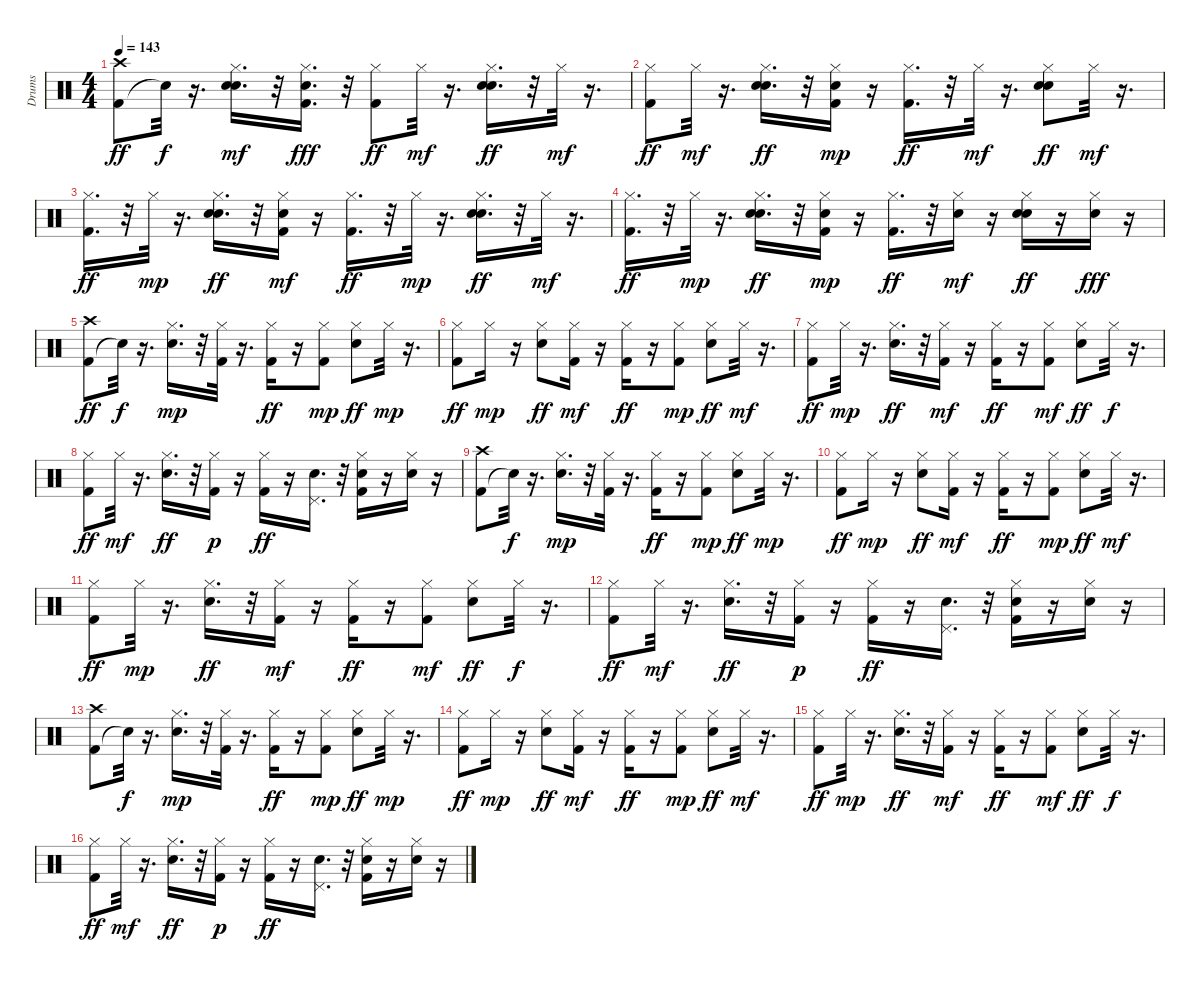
\track ("Drums               " "Drums     ") {instrument percussion}
\staff {score}
\articulation defaults
\ts (4 4)
\tempo 143
\clef neutral
\ks c
("Kick (hit) 2" "Crash high (hit)").8{dy ff} "Snare (hit)"{t}.32{dy f} r.16{d} ("Snare (hit) 2" "Hand Clap (hit)" "Hi-Hat (closed)").16{d dy mf} r.32 ("Kick (hit) 2" "Hand Clap (hit)" "Hi-Hat (closed)").16{d dy fff} r.32 ("Kick (hit) 2" "Hi-Hat (closed)").8{dy ff} "Hi-Hat (closed)".32{dy mf} r.16{d} ("Snare (hit) 2" "Hand Clap (hit)" "Hi-Hat (closed)").16{d dy ff} r.32 "Hi-Hat (closed)".32{dy mf} r.16{d} |
("Kick (hit) 2" "Hi-Hat (closed)").8{dy ff} "Hi-Hat (closed)".32{dy mf} r.16{d} ("Snare (hit) 2" "Hand Clap (hit)" "Hi-Hat (closed)").16{d dy ff} r.32 ("Kick (hit) 2" "Hand Clap (hit)" "Hi-Hat (closed)").16{dy mp} r.16 ("Kick (hit) 2" "Hi-Hat (closed)").16{d dy ff} r.32 "Hi-Hat (closed)".32{dy mf} r.16{d} ("Snare (hit) 2" "Hand Clap (hit)" "Hi-Hat (closed)").8{dy ff} "Hi-Hat (closed)".32{dy mf} r.16{d} |
("Kick (hit) 2" "Hi-Hat (closed)").16{d dy ff} r.32 "Hi-Hat (closed)".32{dy mp} r.16{d} ("Snare (hit) 2" "Hand Clap (hit)" "Hi-Hat (closed)").16{d dy ff} r.32 ("Kick (hit) 2" "Hand Clap (hit)" "Hi-Hat (closed)").16{dy mf} r.16 ("Kick (hit) 2" "Hi-Hat (closed)").16{d dy ff} r.32 "Hi-Hat (closed)".32{dy mp} r.16{d} ("Snare (hit) 2" "Hand Clap (hit)" "Hi-Hat (closed)").16{d dy ff} r.32 "Hi-Hat (closed)".32{dy mf} r.16{d} |
("Kick (hit) 2" "Hi-Hat (closed)").16{d dy ff} r.32 "Hi-Hat (closed)".32{dy mp} r.16{d} ("Snare (hit) 2" "Hand Clap (hit)" "Hi-Hat (closed)").16{d dy ff} r.32 ("Kick (hit) 2" "Hand Clap (hit)" "Hi-Hat (closed)").16{dy mp} r.16 ("Kick (hit) 2" "Hi-Hat (closed)").16{d dy ff} r.32 ("Snare (hit) 2" "Hi-Hat (closed)").16{dy mf} r.16 ("Snare (hit) 2" "Hand Clap (hit)" "Hi-Hat (closed)").16{dy ff} r.16 ("Snare (hit) 2" "Hi-Hat (closed)").16{dy fff} r.16 |
("Kick (hit) 2" "Crash high (hit)").8{dy ff} "Snare (hit)"{t}.32{dy f} r.16{d} ("Snare (hit) 2" "Hi-Hat (closed)").16{d dy mp} r.32 ("Kick (hit) 2" "Hi-Hat (closed)").32 r.16{d} ("Kick (hit) 2" "Hi-Hat (closed)").16{dy ff} r.16 ("Kick (hit) 2" "Hi-Hat (closed)").8{dy mp} ("Snare (hit) 2" "Hi-Hat (closed)").8{dy ff} "Hi-Hat (closed)".32{dy mp} r.16{d} |
("Kick (hit) 2" "Hi-Hat (closed)").8{dy ff} "Hi-Hat (closed)".16{dy mp} r.16 ("Snare (hit) 2" "Hi-Hat (closed)").8{dy ff} ("Kick (hit) 2" "Hi-Hat (closed)").16{dy mf} r.16 ("Kick (hit) 2" "Hi-Hat (closed)").16{dy ff} r.16 ("Kick (hit) 2" "Hi-Hat (closed)").8{dy mp} ("Snare (hit) 2" "Hi-Hat (closed)").8{dy ff} "Hi-Hat (closed)".32{dy mf} r.16{d} |
("Kick (hit) 2" "Hi-Hat (closed)").8{dy ff} "Hi-Hat (closed)".32{dy mp} r.16{d} ("Snare (hit) 2" "Hi-Hat (closed)").16{d dy ff} r.32 ("Kick (hit) 2" "Hi-Hat (closed)").16{dy mf} r.16 ("Kick (hit) 2" "Hi-Hat (closed)").16{dy ff} r.16 ("Kick (hit) 2" "Hi-Hat (closed)").8{dy mf} ("Snare (hit) 2" "Hi-Hat (closed)").8{dy ff} "Hi-Hat (closed)".32{dy f} r.16{d} |
("Kick (hit) 2" "Hi-Hat (closed)").8{dy ff} "Hi-Hat (closed)".32{dy mf} r.16{d} ("Snare (hit) 2" "Hi-Hat (closed)").16{d dy ff} r.32 ("Kick (hit) 2" "Hi-Hat (closed)").16{dy p} r.16 ("Kick (hit) 2" "Hi-Hat (closed)").16{dy ff} r.16 ("Snare (hit) 2" "Pedal Hi-Hat (hit)").16{d} r.32 ("Kick (hit) 2" "Snare (hit) 2" "Hi-Hat (closed)").16 r.16 ("Snare (hit) 2" "Hi-Hat (closed)").16 r.16 |
("Kick (hit) 2" "Crash high (hit)").8 "Snare (hit)"{t}.32{dy f} r.16{d} ("Snare (hit) 2" "Hi-Hat (closed)").16{d dy mp} r.32 ("Kick (hit) 2" "Hi-Hat (closed)").32 r.16{d} ("Kick (hit) 2" "Hi-Hat (closed)").16{dy ff} r.16 ("Kick (hit) 2" "Hi-Hat (closed)").8{dy mp} ("Snare (hit) 2" "Hi-Hat (closed)").8{dy ff} "Hi-Hat (closed)".32{dy mp} r.16{d} |
("Kick (hit) 2" "Hi-Hat (closed)").8{dy ff} "Hi-Hat (closed)".16{dy mp} r.16 ("Snare (hit) 2" "Hi-Hat (closed)").8{dy ff} ("Kick (hit) 2" "Hi-Hat (closed)").16{dy mf} r.16 ("Kick (hit) 2" "Hi-Hat (closed)").16{dy ff} r.16 ("Kick (hit) 2" "Hi-Hat (closed)").8{dy mp} ("Snare (hit) 2" "Hi-Hat (closed)").8{dy ff} "Hi-Hat (closed)".32{dy mf} r.16{d} |
("Kick (hit) 2" "Hi-Hat (closed)").8{dy ff} "Hi-Hat (closed)".32{dy mp} r.16{d} ("Snare (hit) 2" "Hi-Hat (closed)").16{d dy ff} r.32 ("Kick (hit) 2" "Hi-Hat (closed)").16{dy mf} r.16 ("Kick (hit) 2" "Hi-Hat (closed)").16{dy ff} r.16 ("Kick (hit) 2" "Hi-Hat (closed)").8{dy mf} ("Snare (hit) 2" "Hi-Hat (closed)").8{dy ff} "Hi-Hat (closed)".32{dy f} r.16{d} |
("Kick (hit) 2" "Hi-Hat (closed)").8{dy ff} "Hi-Hat (closed)".32{dy mf} r.16{d} ("Snare (hit) 2" "Hi-Hat (closed)").16{d dy ff} r.32 ("Kick (hit) 2" "Hi-Hat (closed)").16{dy p} r.16 ("Kick (hit) 2" "Hi-Hat (closed)").16{dy ff} r.16 ("Snare (hit) 2" "Pedal Hi-Hat (hit)").16{d} r.32 ("Kick (hit) 2" "Snare (hit) 2" "Hi-Hat (closed)").16 r.16 ("Snare (hit) 2" "Hi-Hat (closed)").16 r.16 |
("Kick (hit) 2" "Crash high (hit)").8 "Snare (hit)"{t}.32{dy f} r.16{d} ("Snare (hit) 2" "Hi-Hat (closed)").16{d dy mp} r.32 ("Kick (hit) 2" "Hi-Hat (closed)").32 r.16{d} ("Kick (hit) 2" "Hi-Hat (closed)").16{dy ff} r.16 ("Kick (hit) 2" "Hi-Hat (closed)").8{dy mp} ("Snare (hit) 2" "Hi-Hat (closed)").8{dy ff} "Hi-Hat (closed)".32{dy mp} r.16{d} |
("Kick (hit) 2" "Hi-Hat (closed)").8{dy ff} "Hi-Hat (closed)".16{dy mp} r.16 ("Snare (hit) 2" "Hi-Hat (closed)").8{dy ff} ("Kick (hit) 2" "Hi-Hat (closed)").16{dy mf} r.16 ("Kick (hit) 2" "Hi-Hat (closed)").16{dy ff} r.16 ("Kick (hit) 2" "Hi-Hat (closed)").8{dy mp} ("Snare (hit) 2" "Hi-Hat (closed)").8{dy ff} "Hi-Hat (closed)".32{dy mf} r.16{d} |
("Kick (hit) 2" "Hi-Hat (closed)").8{dy ff} "Hi-Hat (closed)".32{dy mp} r.16{d} ("Snare (hit) 2" "Hi-Hat (closed)").16{d dy ff} r.32 ("Kick (hit) 2" "Hi-Hat (closed)").16{dy mf} r.16 ("Kick (hit) 2" "Hi-Hat (closed)").16{dy ff} r.16 ("Kick (hit) 2" "Hi-Hat (closed)").8{dy mf} ("Snare (hit) 2" "Hi-Hat (closed)").8{dy ff} "Hi-Hat (closed)".32{dy f} r.16{d} |
("Kick (hit) 2" "Hi-Hat (closed)").8{dy ff} "Hi-Hat (closed)".32{dy mf} r.16{d} ("Snare (hit) 2" "Hi-Hat (closed)").16{d dy ff} r.32 ("Kick (hit) 2" "Hi-Hat (closed)").16{dy p} r.16 ("Kick (hit) 2" "Hi-Hat (closed)").16{dy ff} r.16 ("Snare (hit) 2" "Pedal Hi-Hat (hit)").16{d} r.32 ("Kick (hit) 2" "Snare (hit) 2" "Hi-Hat (closed)").16 r.16 ("Snare (hit) 2" "Hi-Hat (closed)").16 r.16
